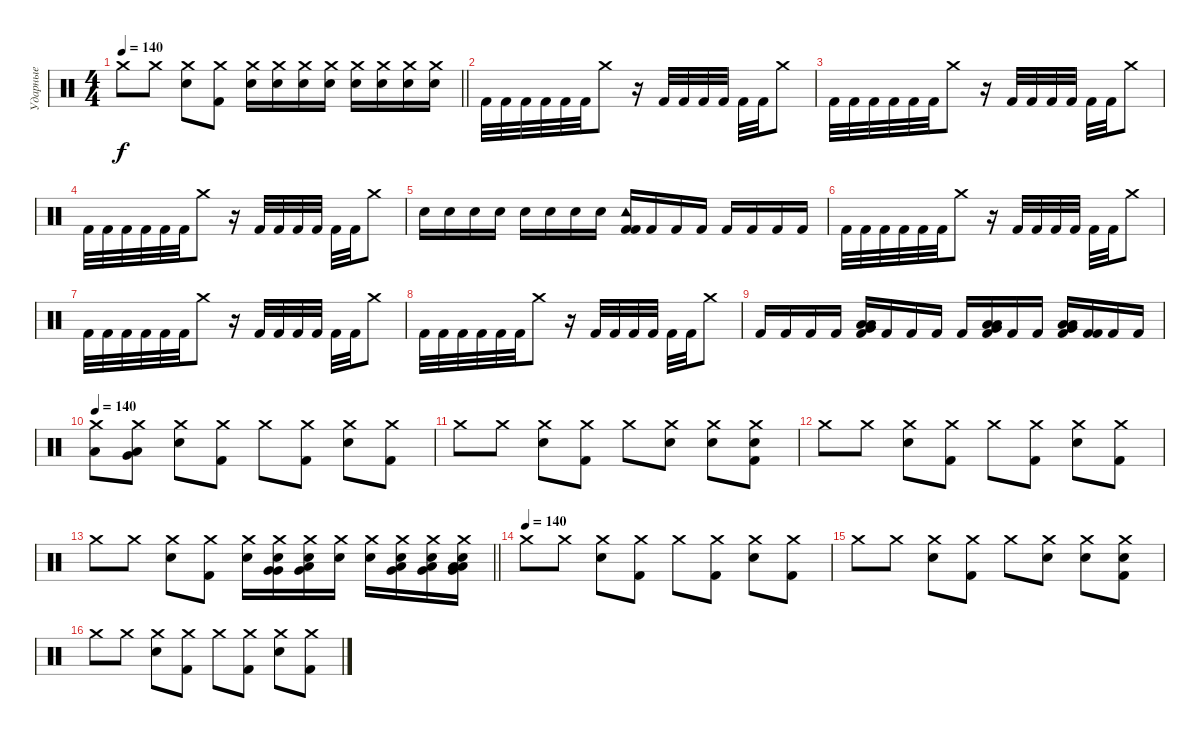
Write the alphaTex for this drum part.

\track ("Ударные" "Ударные") {instrument percussion}
\staff {score}
\articulation defaults
\ts (4 4)
\tempo 140
\clef neutral
\barLineRight lightlight
\ks c "Crash medium (hit)".8{dy f} "Crash medium (hit)".8
("Crash medium (hit)" "Snare (hit) 2").8 ("Crash medium (hit)" "Kick (hit) 2").8 ("Crash medium (hit)" "Snare (hit) 2").16 ("Crash medium (hit)" "Snare (hit) 2").16 ("Crash medium (hit)" "Snare (hit) 2").16 ("Crash medium (hit)" "Snare (hit) 2").16 ("Crash medium (hit)" "Snare (hit) 2").16 ("Crash medium (hit)" "Snare (hit) 2").16 ("Crash medium (hit)" "Snare (hit) 2").16 ("Crash medium (hit)" "Snare (hit) 2").16 |
"Kick (hit) 2".32 "Kick (hit) 2".32 "Kick (hit) 2".32 "Kick (hit) 2".32 "Kick (hit) 2".32 "Kick (hit) 2".32 "Crash medium (hit)".8 r.16 "Kick (hit) 2".32 "Kick (hit) 2".32 "Kick (hit) 2".32 "Kick (hit) 2".32 "Kick (hit) 2".32 "Kick (hit) 2".32 "Crash medium (hit)".8 |
"Kick (hit) 2".32 "Kick (hit) 2".32 "Kick (hit) 2".32 "Kick (hit) 2".32 "Kick (hit) 2".32 "Kick (hit) 2".32 "Crash medium (hit)".8 r.16 "Kick (hit) 2".32 "Kick (hit) 2".32 "Kick (hit) 2".32 "Kick (hit) 2".32 "Kick (hit) 2".32 "Kick (hit) 2".32 "Crash medium (hit)".8 |
"Kick (hit) 2".32 "Kick (hit) 2".32 "Kick (hit) 2".32 "Kick (hit) 2".32 "Kick (hit) 2".32 "Kick (hit) 2".32 "Crash medium (hit)".8 r.16 "Kick (hit) 2".32 "Kick (hit) 2".32 "Kick (hit) 2".32 "Kick (hit) 2".32 "Kick (hit) 2".32 "Kick (hit) 2".32 "Crash medium (hit)".8 |
"Snare (hit) 2".16 "Snare (hit) 2".16 "Snare (hit) 2".16 "Snare (hit) 2".16 "Snare (hit) 2".16 "Snare (hit) 2".16 "Snare (hit) 2".16 "Snare (hit) 2".16 ("Tambourine (hit)" "Kick (hit) 2" "Kick (hit) 2").16 "Kick (hit) 2".16 "Kick (hit) 2".16 "Kick (hit) 2".16 "Kick (hit) 2".16 "Kick (hit) 2".16 "Kick (hit) 2".16 "Kick (hit) 2".16 |
"Kick (hit) 2".32 "Kick (hit) 2".32 "Kick (hit) 2".32 "Kick (hit) 2".32 "Kick (hit) 2".32 "Kick (hit) 2".32 "Crash medium (hit)".8 r.16 "Kick (hit) 2".32 "Kick (hit) 2".32 "Kick (hit) 2".32 "Kick (hit) 2".32 "Kick (hit) 2".32 "Kick (hit) 2".32 "Crash medium (hit)".8 |
"Kick (hit) 2".32 "Kick (hit) 2".32 "Kick (hit) 2".32 "Kick (hit) 2".32 "Kick (hit) 2".32 "Kick (hit) 2".32 "Crash medium (hit)".8 r.16 "Kick (hit) 2".32 "Kick (hit) 2".32 "Kick (hit) 2".32 "Kick (hit) 2".32 "Kick (hit) 2".32 "Kick (hit) 2".32 "Crash medium (hit)".8 |
"Kick (hit) 2".32 "Kick (hit) 2".32 "Kick (hit) 2".32 "Kick (hit) 2".32 "Kick (hit) 2".32 "Kick (hit) 2".32 "Crash medium (hit)".8 r.16 "Kick (hit) 2".32 "Kick (hit) 2".32 "Kick (hit) 2".32 "Kick (hit) 2".32 "Kick (hit) 2".32 "Kick (hit) 2".32 "Crash medium (hit)".8 |
"Kick (hit) 2".16 "Kick (hit) 2".16 "Kick (hit) 2".16 "Kick (hit) 2".16 ("Kick (hit) 2" "Low Floor Tom (hit)" "Very Low Tom (hit)" "Low Tom (hit)").16 "Kick (hit) 2".16 "Kick (hit) 2".16 "Kick (hit) 2".16 "Kick (hit) 2".16 ("Kick (hit) 2" "Low Floor Tom (hit)" "Very Low Tom (hit)" "Low Tom (hit)").16 "Kick (hit) 2".16 "Kick (hit) 2".16 ("Kick (hit) 2" "Low Floor Tom (hit)" "Very Low Tom (hit)" "Low Tom (hit)").16 ("Kick (hit) 2" "Kick (hit) 2").16 "Kick (hit) 2".16 "Kick (hit) 2".16 |
\tempo 140
("Crash medium (hit)" "Low Tom (hit)").8 ("Crash medium (hit)" "Very Low Tom (hit)" "Low Floor Tom (hit)").8 ("Crash medium (hit)" "Snare (hit) 2").8 ("Crash medium (hit)" "Kick (hit) 2").8 "Crash medium (hit)".8 ("Crash medium (hit)" "Kick (hit) 2").8 ("Crash medium (hit)" "Snare (hit) 2").8 ("Crash medium (hit)" "Kick (hit) 2").8 |
"Crash medium (hit)".8 "Crash medium (hit)".8 ("Crash medium (hit)" "Snare (hit) 2").8 ("Crash medium (hit)" "Kick (hit) 2").8 "Crash medium (hit)".8 ("Crash medium (hit)" "Snare (hit) 2").8 ("Crash medium (hit)" "Snare (hit) 2").8 ("Crash medium (hit)" "Kick (hit) 2" "Snare (hit) 2").8 |
"Crash medium (hit)".8 "Crash medium (hit)".8 ("Crash medium (hit)" "Snare (hit) 2").8 ("Crash medium (hit)" "Kick (hit) 2").8 "Crash medium (hit)".8 ("Crash medium (hit)" "Kick (hit) 2").8 ("Crash medium (hit)" "Snare (hit) 2").8 ("Crash medium (hit)" "Kick (hit) 2").8 |
\barLineRight lightlight "Crash medium (hit)".8 "Crash medium (hit)".8
("Crash medium (hit)" "Snare (hit) 2").8 ("Crash medium (hit)" "Kick (hit) 2").8 ("Crash medium (hit)" "Snare (hit) 2").16 ("Crash medium (hit)" "Snare (hit) 2" "Very Low Tom (hit)" "Very Low Tom (hit)").16 ("Crash medium (hit)" "Snare (hit) 2" "Very Low Tom (hit)" "Low Tom (hit)").16 ("Crash medium (hit)" "Snare (hit) 2").16 ("Crash medium (hit)" "Snare (hit) 2").16 ("Crash medium (hit)" "Snare (hit) 2" "Very Low Tom (hit)" "Low Tom (hit)").16 ("Crash medium (hit)" "Snare (hit) 2" "Very Low Tom (hit)" "Low Tom (hit)").16 ("Crash medium (hit)" "Snare (hit) 2" "Very Low Tom (hit)" "Low Tom (hit)" "Low Floor Tom (hit)").16 |
\tempo (140)
"Crash medium (hit)".8 "Crash medium (hit)".8 ("Crash medium (hit)" "Snare (hit) 2").8 ("Crash medium (hit)" "Kick (hit) 2").8 "Crash medium (hit)".8 ("Crash medium (hit)" "Kick (hit) 2").8 ("Crash medium (hit)" "Snare (hit) 2").8 ("Crash medium (hit)" "Kick (hit) 2").8 |
"Crash medium (hit)".8 "Crash medium (hit)".8 ("Crash medium (hit)" "Snare (hit) 2").8 ("Crash medium (hit)" "Kick (hit) 2").8 "Crash medium (hit)".8 ("Crash medium (hit)" "Snare (hit) 2").8 ("Crash medium (hit)" "Snare (hit) 2").8 ("Crash medium (hit)" "Kick (hit) 2" "Snare (hit) 2").8 |
"Crash medium (hit)".8 "Crash medium (hit)".8 ("Crash medium (hit)" "Snare (hit) 2").8 ("Crash medium (hit)" "Kick (hit) 2").8 "Crash medium (hit)".8 ("Crash medium (hit)" "Kick (hit) 2").8 ("Crash medium (hit)" "Snare (hit) 2").8 ("Crash medium (hit)" "Kick (hit) 2").8
